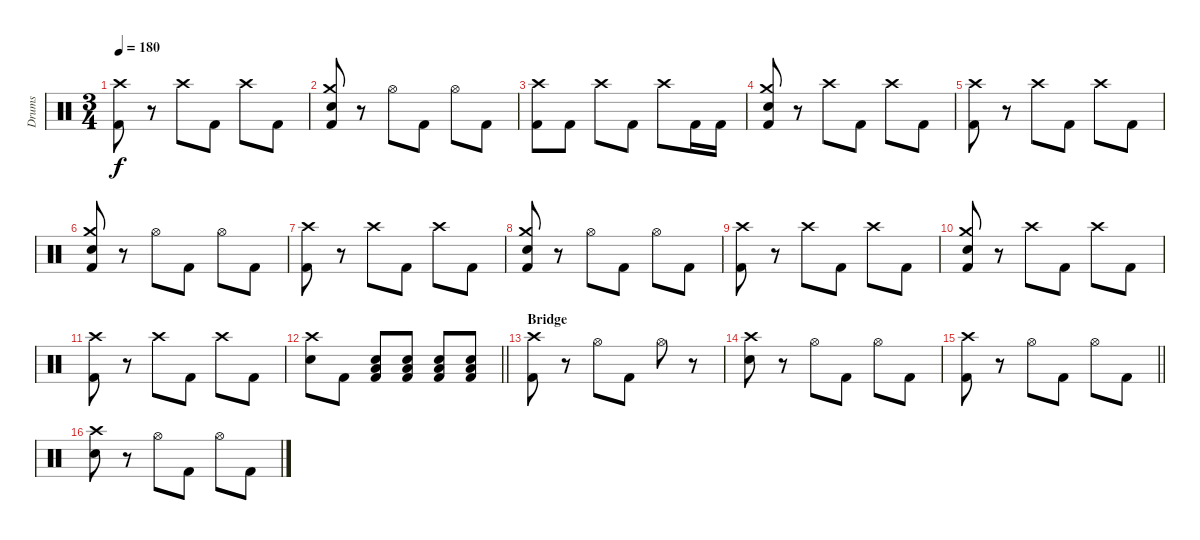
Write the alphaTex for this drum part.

\track ("Drums" "Drums") {instrument percussion}
\staff {score}
\articulation defaults
\ts (3 4)
\tempo 180
\clef neutral
\ks c
("Crash high (hit)" "Kick (hit) 2").8{dy f} r.8 "Crash high (hit)".8 "Kick (hit) 2".8 "Crash high (hit)".8 "Kick (hit) 2".8 |
("Crash medium (hit)" "Electric Snare (hit)" "Kick (hit) 2").8 r.8 "Hi-Hat (open)".8 "Kick (hit) 2".8 "Hi-Hat (open)".8 "Kick (hit) 2".8 |
("Crash high (hit)" "Kick (hit) 2").8 "Kick (hit) 2".8 "Crash high (hit)".8 "Kick (hit) 2".8 "Crash high (hit)".8 "Kick (hit) 2".16 "Kick (hit) 2".16 |
("Crash medium (hit)" "Electric Snare (hit)" "Kick (hit) 2").8 r.8 "Crash high (hit)".8 "Kick (hit) 2".8 "Crash high (hit)".8 "Kick (hit) 2".8 |
("Crash high (hit)" "Kick (hit) 2").8 r.8 "Crash high (hit)".8 "Kick (hit) 2".8 "Crash high (hit)".8 "Kick (hit) 2".8 |
("Crash medium (hit)" "Electric Snare (hit)" "Kick (hit) 2").8 r.8 "Hi-Hat (open)".8 "Kick (hit) 2".8 "Hi-Hat (open)".8 "Kick (hit) 2".8 |
("Crash high (hit)" "Kick (hit) 2").8 r.8 "Crash high (hit)".8 "Kick (hit) 2".8 "Crash high (hit)".8 "Kick (hit) 2".8 |
("Crash medium (hit)" "Electric Snare (hit)" "Kick (hit) 2").8 r.8 "Hi-Hat (open)".8 "Kick (hit) 2".8 "Hi-Hat (open)".8 "Kick (hit) 2".8 |
("Crash high (hit)" "Kick (hit) 2").8 r.8 "Crash high (hit)".8 "Kick (hit) 2".8 "Crash high (hit)".8 "Kick (hit) 2".8 |
("Crash medium (hit)" "Electric Snare (hit)" "Kick (hit) 2").8 r.8 "Crash high (hit)".8 "Kick (hit) 2".8 "Crash high (hit)".8 "Kick (hit) 2".8 |
("Crash high (hit)" "Kick (hit) 2").8 r.8 "Crash high (hit)".8 "Kick (hit) 2".8 "Crash high (hit)".8 "Kick (hit) 2".8 |
\barLineRight lightlight
("Crash high (hit)" "Electric Snare (hit)").8 "Kick (hit) 2".8 ("Electric Snare (hit)" "Low Floor Tom (hit)" "Kick (hit) 2").8 ("Electric Snare (hit)" "Low Floor Tom (hit)" "Kick (hit) 2").8 ("Electric Snare (hit)" "Low Floor Tom (hit)" "Kick (hit) 2").8 ("Electric Snare (hit)" "Low Floor Tom (hit)" "Kick (hit) 2").8 |
\section ("" "Bridge")
("Crash high (hit)" "Kick (hit) 2").8 r.8 "Hi-Hat (open)".8 "Kick (hit) 2".8 "Hi-Hat (open)".8 r.8 |
("Crash high (hit)" "Electric Snare (hit)").8 r.8 "Hi-Hat (open)".8 "Kick (hit) 2".8 "Hi-Hat (open)".8 "Kick (hit) 2".8 |
\barLineRight lightlight
("Crash high (hit)" "Kick (hit) 2").8 r.8 "Hi-Hat (open)".8 "Kick (hit) 2".8 "Hi-Hat (open)".8 "Kick (hit) 2".8 |
("Crash high (hit)" "Electric Snare (hit)").8 r.8 "Hi-Hat (open)".8 "Kick (hit) 2".8 "Hi-Hat (open)".8 "Kick (hit) 2".8
